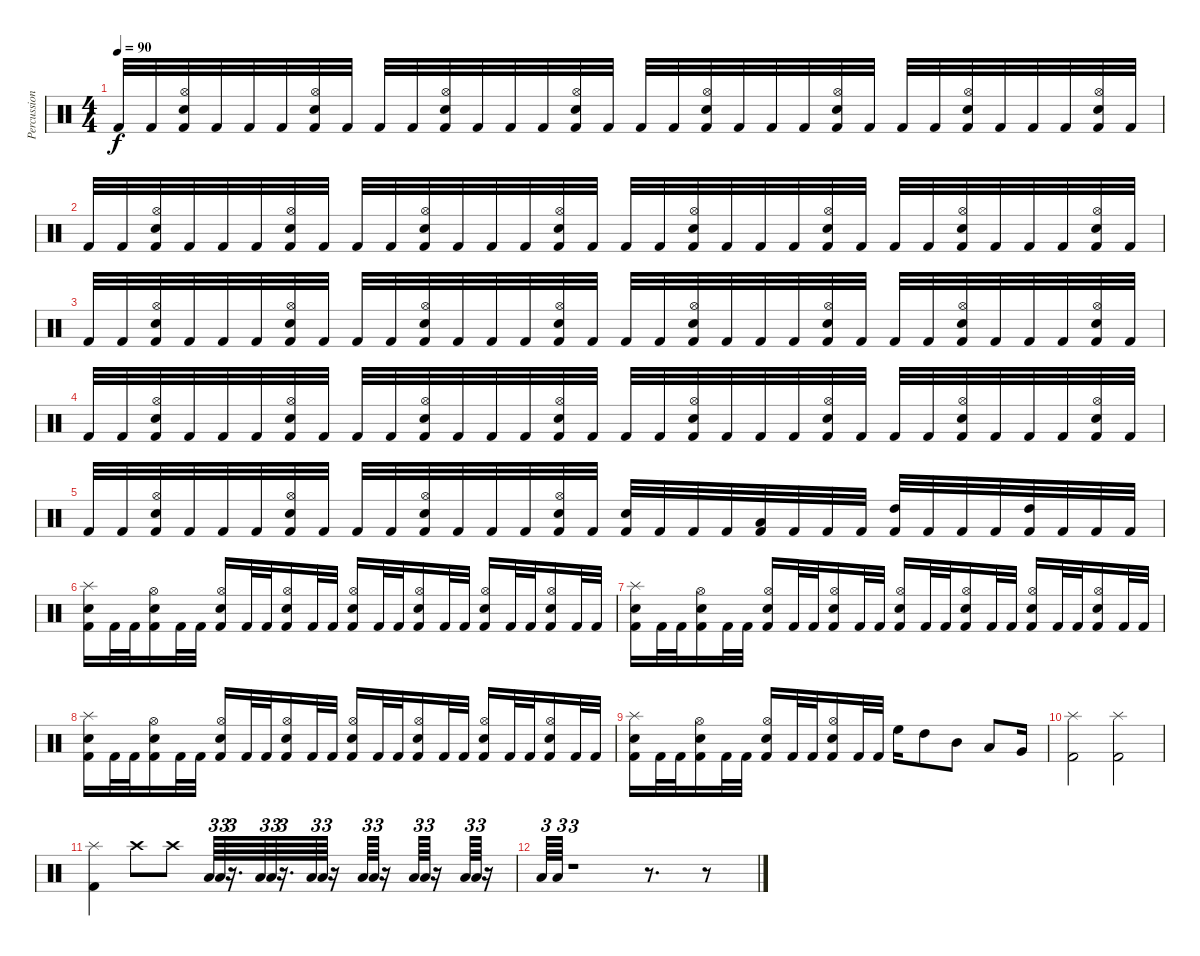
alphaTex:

\track ("Percussions" "Percussion") {instrument percussion}
\staff {score}
\articulation defaults
\ts (4 4)
\tempo 90
\clef neutral
\ks c "Kick (hit) 2".32{dy f} "Kick (hit) 2".32
("Hi-Hat (open)" "Electric Snare (hit)" "Kick (hit) 2").32 "Kick (hit) 2".32 "Kick (hit) 2".32 "Kick (hit) 2".32 ("Hi-Hat (open)" "Electric Snare (hit)" "Kick (hit) 2").32 "Kick (hit) 2".32 "Kick (hit) 2".32 "Kick (hit) 2".32 ("Hi-Hat (open)" "Electric Snare (hit)" "Kick (hit) 2").32 "Kick (hit) 2".32 "Kick (hit) 2".32 "Kick (hit) 2".32 ("Hi-Hat (open)" "Electric Snare (hit)" "Kick (hit) 2").32 "Kick (hit) 2".32 "Kick (hit) 2".32 "Kick (hit) 2".32 ("Hi-Hat (open)" "Electric Snare (hit)" "Kick (hit) 2").32 "Kick (hit) 2".32 "Kick (hit) 2".32 "Kick (hit) 2".32 ("Hi-Hat (open)" "Electric Snare (hit)" "Kick (hit) 2").32 "Kick (hit) 2".32 "Kick (hit) 2".32 "Kick (hit) 2".32 ("Hi-Hat (open)" "Electric Snare (hit)" "Kick (hit) 2").32 "Kick (hit) 2".32 "Kick (hit) 2".32 "Kick (hit) 2".32 ("Hi-Hat (open)" "Electric Snare (hit)" "Kick (hit) 2").32 "Kick (hit) 2".32 |
"Kick (hit) 2".32 "Kick (hit) 2".32 ("Hi-Hat (open)" "Electric Snare (hit)" "Kick (hit) 2").32 "Kick (hit) 2".32 "Kick (hit) 2".32 "Kick (hit) 2".32 ("Hi-Hat (open)" "Electric Snare (hit)" "Kick (hit) 2").32 "Kick (hit) 2".32 "Kick (hit) 2".32 "Kick (hit) 2".32 ("Hi-Hat (open)" "Electric Snare (hit)" "Kick (hit) 2").32 "Kick (hit) 2".32 "Kick (hit) 2".32 "Kick (hit) 2".32 ("Hi-Hat (open)" "Electric Snare (hit)" "Kick (hit) 2").32 "Kick (hit) 2".32 "Kick (hit) 2".32 "Kick (hit) 2".32 ("Hi-Hat (open)" "Electric Snare (hit)" "Kick (hit) 2").32 "Kick (hit) 2".32 "Kick (hit) 2".32 "Kick (hit) 2".32 ("Hi-Hat (open)" "Electric Snare (hit)" "Kick (hit) 2").32 "Kick (hit) 2".32 "Kick (hit) 2".32 "Kick (hit) 2".32 ("Hi-Hat (open)" "Electric Snare (hit)" "Kick (hit) 2").32 "Kick (hit) 2".32 "Kick (hit) 2".32 "Kick (hit) 2".32 ("Hi-Hat (open)" "Electric Snare (hit)" "Kick (hit) 2").32 "Kick (hit) 2".32 |
"Kick (hit) 2".32 "Kick (hit) 2".32 ("Hi-Hat (open)" "Electric Snare (hit)" "Kick (hit) 2").32 "Kick (hit) 2".32 "Kick (hit) 2".32 "Kick (hit) 2".32 ("Hi-Hat (open)" "Electric Snare (hit)" "Kick (hit) 2").32 "Kick (hit) 2".32 "Kick (hit) 2".32 "Kick (hit) 2".32 ("Hi-Hat (open)" "Electric Snare (hit)" "Kick (hit) 2").32 "Kick (hit) 2".32 "Kick (hit) 2".32 "Kick (hit) 2".32 ("Hi-Hat (open)" "Electric Snare (hit)" "Kick (hit) 2").32 "Kick (hit) 2".32 "Kick (hit) 2".32 "Kick (hit) 2".32 ("Hi-Hat (open)" "Electric Snare (hit)" "Kick (hit) 2").32 "Kick (hit) 2".32 "Kick (hit) 2".32 "Kick (hit) 2".32 ("Hi-Hat (open)" "Electric Snare (hit)" "Kick (hit) 2").32 "Kick (hit) 2".32 "Kick (hit) 2".32 "Kick (hit) 2".32 ("Hi-Hat (open)" "Electric Snare (hit)" "Kick (hit) 2").32 "Kick (hit) 2".32 "Kick (hit) 2".32 "Kick (hit) 2".32 ("Hi-Hat (open)" "Electric Snare (hit)" "Kick (hit) 2").32 "Kick (hit) 2".32 |
"Kick (hit) 2".32 "Kick (hit) 2".32 ("Hi-Hat (open)" "Electric Snare (hit)" "Kick (hit) 2").32 "Kick (hit) 2".32 "Kick (hit) 2".32 "Kick (hit) 2".32 ("Hi-Hat (open)" "Electric Snare (hit)" "Kick (hit) 2").32 "Kick (hit) 2".32 "Kick (hit) 2".32 "Kick (hit) 2".32 ("Hi-Hat (open)" "Electric Snare (hit)" "Kick (hit) 2").32 "Kick (hit) 2".32 "Kick (hit) 2".32 "Kick (hit) 2".32 ("Hi-Hat (open)" "Electric Snare (hit)" "Kick (hit) 2").32 "Kick (hit) 2".32 "Kick (hit) 2".32 "Kick (hit) 2".32 ("Hi-Hat (open)" "Electric Snare (hit)" "Kick (hit) 2").32 "Kick (hit) 2".32 "Kick (hit) 2".32 "Kick (hit) 2".32 ("Hi-Hat (open)" "Electric Snare (hit)" "Kick (hit) 2").32 "Kick (hit) 2".32 "Kick (hit) 2".32 "Kick (hit) 2".32 ("Hi-Hat (open)" "Electric Snare (hit)" "Kick (hit) 2").32 "Kick (hit) 2".32 "Kick (hit) 2".32 "Kick (hit) 2".32 ("Hi-Hat (open)" "Electric Snare (hit)" "Kick (hit) 2").32 "Kick (hit) 2".32 |
"Kick (hit) 2".32 "Kick (hit) 2".32 ("Hi-Hat (open)" "Electric Snare (hit)" "Kick (hit) 2").32 "Kick (hit) 2".32 "Kick (hit) 2".32 "Kick (hit) 2".32 ("Hi-Hat (open)" "Electric Snare (hit)" "Kick (hit) 2").32 "Kick (hit) 2".32 "Kick (hit) 2".32 "Kick (hit) 2".32 ("Hi-Hat (open)" "Electric Snare (hit)" "Kick (hit) 2").32 "Kick (hit) 2".32 "Kick (hit) 2".32 "Kick (hit) 2".32 ("Hi-Hat (open)" "Electric Snare (hit)" "Kick (hit) 2").32 "Kick (hit) 2".32 ("Electric Snare (hit)" "Kick (hit) 2").32 "Kick (hit) 2".32 "Kick (hit) 2".32 "Kick (hit) 2".32 ("Low Tom (hit)" "Kick (hit) 2").32 "Kick (hit) 2".32 "Kick (hit) 2".32 "Kick (hit) 2".32 ("High Tom (hit)" "Kick (hit) 2").32 "Kick (hit) 2".32 "Kick (hit) 2".32 "Kick (hit) 2".32 ("High Tom (hit)" "Kick (hit) 2").32 "Kick (hit) 2".32 "Kick (hit) 2".32 "Kick (hit) 2".32 |
("Splash (hit)" "Electric Snare (hit)" "Kick (hit) 2").16 "Kick (hit) 2".32 "Kick (hit) 2".32 ("Hi-Hat (open)" "Electric Snare (hit)" "Kick (hit) 2").16 "Kick (hit) 2".32 "Kick (hit) 2".32 ("Hi-Hat (open)" "Electric Snare (hit)" "Kick (hit) 2").16 "Kick (hit) 2".32 "Kick (hit) 2".32 ("Hi-Hat (open)" "Electric Snare (hit)" "Kick (hit) 2").16 "Kick (hit) 2".32 "Kick (hit) 2".32 ("Hi-Hat (open)" "Electric Snare (hit)" "Kick (hit) 2").16 "Kick (hit) 2".32 "Kick (hit) 2".32 ("Hi-Hat (open)" "Electric Snare (hit)" "Kick (hit) 2").16 "Kick (hit) 2".32 "Kick (hit) 2".32 ("Hi-Hat (open)" "Electric Snare (hit)" "Kick (hit) 2").16 "Kick (hit) 2".32 "Kick (hit) 2".32 ("Hi-Hat (open)" "Electric Snare (hit)" "Kick (hit) 2").16 "Kick (hit) 2".32 "Kick (hit) 2".32 |
("Splash (hit)" "Electric Snare (hit)" "Kick (hit) 2").16 "Kick (hit) 2".32 "Kick (hit) 2".32 ("Hi-Hat (open)" "Electric Snare (hit)" "Kick (hit) 2").16 "Kick (hit) 2".32 "Kick (hit) 2".32 ("Hi-Hat (open)" "Electric Snare (hit)" "Kick (hit) 2").16 "Kick (hit) 2".32 "Kick (hit) 2".32 ("Hi-Hat (open)" "Electric Snare (hit)" "Kick (hit) 2").16 "Kick (hit) 2".32 "Kick (hit) 2".32 ("Hi-Hat (open)" "Electric Snare (hit)" "Kick (hit) 2").16 "Kick (hit) 2".32 "Kick (hit) 2".32 ("Hi-Hat (open)" "Electric Snare (hit)" "Kick (hit) 2").16 "Kick (hit) 2".32 "Kick (hit) 2".32 ("Hi-Hat (open)" "Electric Snare (hit)" "Kick (hit) 2").16 "Kick (hit) 2".32 "Kick (hit) 2".32 ("Hi-Hat (open)" "Electric Snare (hit)" "Kick (hit) 2").16 "Kick (hit) 2".32 "Kick (hit) 2".32 |
("Splash (hit)" "Electric Snare (hit)" "Kick (hit) 2").16 "Kick (hit) 2".32 "Kick (hit) 2".32 ("Hi-Hat (open)" "Electric Snare (hit)" "Kick (hit) 2").16 "Kick (hit) 2".32 "Kick (hit) 2".32 ("Hi-Hat (open)" "Electric Snare (hit)" "Kick (hit) 2").16 "Kick (hit) 2".32 "Kick (hit) 2".32 ("Hi-Hat (open)" "Electric Snare (hit)" "Kick (hit) 2").16 "Kick (hit) 2".32 "Kick (hit) 2".32 ("Hi-Hat (open)" "Electric Snare (hit)" "Kick (hit) 2").16 "Kick (hit) 2".32 "Kick (hit) 2".32 ("Hi-Hat (open)" "Electric Snare (hit)" "Kick (hit) 2").16 "Kick (hit) 2".32 "Kick (hit) 2".32 ("Hi-Hat (open)" "Electric Snare (hit)" "Kick (hit) 2").16 "Kick (hit) 2".32 "Kick (hit) 2".32 ("Hi-Hat (open)" "Electric Snare (hit)" "Kick (hit) 2").16 "Kick (hit) 2".32 "Kick (hit) 2".32 |
("Splash (hit)" "Electric Snare (hit)" "Kick (hit) 2").16 "Kick (hit) 2".32 "Kick (hit) 2".32 ("Hi-Hat (open)" "Electric Snare (hit)" "Kick (hit) 2").16 "Kick (hit) 2".32 "Kick (hit) 2".32 ("Hi-Hat (open)" "Electric Snare (hit)" "Kick (hit) 2").16 "Kick (hit) 2".32 "Kick (hit) 2".32 ("Hi-Hat (open)" "Electric Snare (hit)" "Kick (hit) 2").16 "Kick (hit) 2".32 "Kick (hit) 2".32 "High Floor Tom (hit)".16 "High Tom (hit)".8 "Mid Tom (hit)".8 "Low Tom (hit)".8 "Very Low Tom (hit)".16 |
("Splash (hit)" "Kick (hit) 2").2 ("Splash (hit)" "Kick (hit) 2").2 |
("Splash (hit)" "Kick (hit) 2").4 "Crash high (hit)".8 "Crash high (hit)".8 "Low Tom (hit)".64{tu (3 2)} "Low Tom (hit)".64{tu (3 2)} r.16{d tu (3 2)} "Low Tom (hit)".64{tu (3 2)} "Low Tom (hit)".64{tu (3 2)} r.16{d tu (3 2)} "Low Tom (hit)".64{tu (3 2)} "Low Tom (hit)".64{tu (3 2)} r.16 "Low Tom (hit)".64{tu (3 2)} "Low Tom (hit)".64{tu (3 2)} r.16 "Low Tom (hit)".64{tu (3 2)} "Low Tom (hit)".64{tu (3 2)} r.16 "Low Tom (hit)".64{tu (3 2)} "Low Tom (hit)".64{tu (3 2)} r.16 |
"Low Tom (hit)".64{tu (3 2)} "Low Tom (hit)".64{tu (3 2)} r.1{tu (3 2)} r.8{d} r.8
